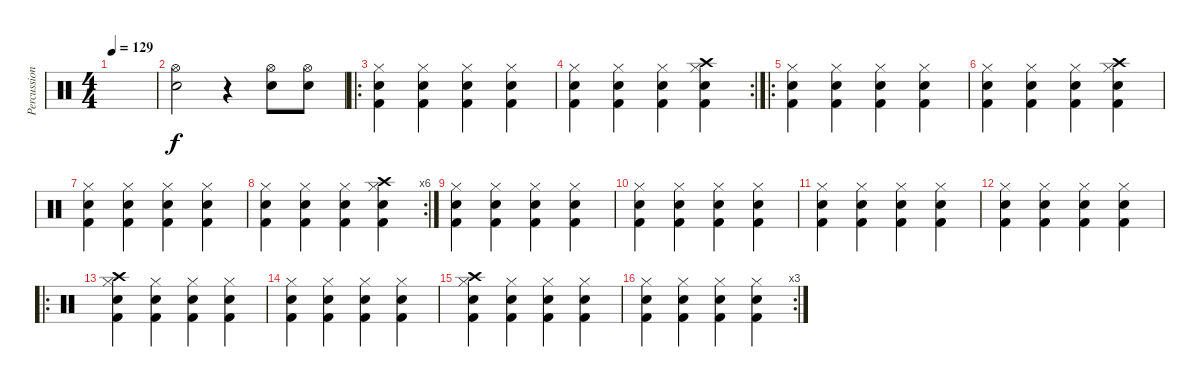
\track ("Percussion" "Percussion") {instrument percussion}
\staff {score}
\articulation defaults
\ts (4 4)
\tempo 129
\clef neutral
\ks c
|
("Hi-Hat (open)" "Snare (hit) 2").2 r.4 ("Hi-Hat (open)" "Snare (hit) 2").8 ("Hi-Hat (open)" "Snare (hit) 2").8 |
\ro
("Hi-Hat (closed)" "Electric Snare (hit)" "Kick (hit) 2").4 ("Hi-Hat (closed)" "Electric Snare (hit)" "Kick (hit) 2").4 ("Hi-Hat (closed)" "Electric Snare (hit)" "Kick (hit) 2").4 ("Hi-Hat (closed)" "Electric Snare (hit)" "Kick (hit) 2").4 |
\rc 2
("Hi-Hat (closed)" "Electric Snare (hit)" "Kick (hit) 2").4 ("Hi-Hat (closed)" "Electric Snare (hit)" "Kick (hit) 2").4 ("Hi-Hat (closed)" "Electric Snare (hit)" "Kick (hit) 2").4 ("Crash high (hit)" "Hi-Hat (closed)" "Electric Snare (hit)" "Kick (hit) 2").4 |
\ro
("Hi-Hat (closed)" "Electric Snare (hit)" "Kick (hit) 2").4 ("Hi-Hat (closed)" "Electric Snare (hit)" "Kick (hit) 2").4 ("Hi-Hat (closed)" "Electric Snare (hit)" "Kick (hit) 2").4 ("Hi-Hat (closed)" "Electric Snare (hit)" "Kick (hit) 2").4 |
("Hi-Hat (closed)" "Electric Snare (hit)" "Kick (hit) 2").4 ("Hi-Hat (closed)" "Electric Snare (hit)" "Kick (hit) 2").4 ("Hi-Hat (closed)" "Electric Snare (hit)" "Kick (hit) 2").4 ("Crash high (hit)" "Hi-Hat (closed)" "Electric Snare (hit)" "Kick (hit) 2").4 |
("Hi-Hat (closed)" "Electric Snare (hit)" "Kick (hit) 2").4 ("Hi-Hat (closed)" "Electric Snare (hit)" "Kick (hit) 2").4 ("Hi-Hat (closed)" "Electric Snare (hit)" "Kick (hit) 2").4 ("Hi-Hat (closed)" "Electric Snare (hit)" "Kick (hit) 2").4 |
\rc 6
("Hi-Hat (closed)" "Electric Snare (hit)" "Kick (hit) 2").4 ("Hi-Hat (closed)" "Electric Snare (hit)" "Kick (hit) 2").4 ("Hi-Hat (closed)" "Electric Snare (hit)" "Kick (hit) 2").4 ("Crash high (hit)" "Hi-Hat (closed)" "Electric Snare (hit)" "Kick (hit) 2").4 |
("Hi-Hat (closed)" "Electric Snare (hit)" "Kick (hit) 2").4 ("Hi-Hat (closed)" "Electric Snare (hit)" "Kick (hit) 2").4 ("Hi-Hat (closed)" "Electric Snare (hit)" "Kick (hit) 2").4 ("Hi-Hat (closed)" "Electric Snare (hit)" "Kick (hit) 2").4 |
("Hi-Hat (closed)" "Electric Snare (hit)" "Kick (hit) 2").4 ("Hi-Hat (closed)" "Electric Snare (hit)" "Kick (hit) 2").4 ("Hi-Hat (closed)" "Electric Snare (hit)" "Kick (hit) 2").4 ("Hi-Hat (closed)" "Electric Snare (hit)" "Kick (hit) 2").4 |
("Hi-Hat (closed)" "Electric Snare (hit)" "Kick (hit) 2").4 ("Hi-Hat (closed)" "Electric Snare (hit)" "Kick (hit) 2").4 ("Hi-Hat (closed)" "Electric Snare (hit)" "Kick (hit) 2").4 ("Hi-Hat (closed)" "Electric Snare (hit)" "Kick (hit) 2").4 |
("Hi-Hat (closed)" "Electric Snare (hit)" "Kick (hit) 2").4 ("Hi-Hat (closed)" "Electric Snare (hit)" "Kick (hit) 2").4 ("Hi-Hat (closed)" "Electric Snare (hit)" "Kick (hit) 2").4 ("Hi-Hat (closed)" "Electric Snare (hit)" "Kick (hit) 2").4 |
\ro
("Crash high (hit)" "Hi-Hat (closed)" "Electric Snare (hit)" "Kick (hit) 2").4 ("Hi-Hat (closed)" "Electric Snare (hit)" "Kick (hit) 2").4 ("Hi-Hat (closed)" "Electric Snare (hit)" "Kick (hit) 2").4 ("Hi-Hat (closed)" "Electric Snare (hit)" "Kick (hit) 2").4 |
("Hi-Hat (closed)" "Electric Snare (hit)" "Kick (hit) 2").4 ("Hi-Hat (closed)" "Electric Snare (hit)" "Kick (hit) 2").4 ("Hi-Hat (closed)" "Electric Snare (hit)" "Kick (hit) 2").4 ("Hi-Hat (closed)" "Electric Snare (hit)" "Kick (hit) 2").4 |
("Crash high (hit)" "Hi-Hat (closed)" "Electric Snare (hit)" "Kick (hit) 2").4 ("Hi-Hat (closed)" "Electric Snare (hit)" "Kick (hit) 2").4 ("Hi-Hat (closed)" "Electric Snare (hit)" "Kick (hit) 2").4 ("Hi-Hat (closed)" "Electric Snare (hit)" "Kick (hit) 2").4 |
\rc 3
("Hi-Hat (closed)" "Electric Snare (hit)" "Kick (hit) 2").4 ("Hi-Hat (closed)" "Electric Snare (hit)" "Kick (hit) 2").4 ("Hi-Hat (closed)" "Electric Snare (hit)" "Kick (hit) 2").4 ("Hi-Hat (closed)" "Electric Snare (hit)" "Kick (hit) 2").4
